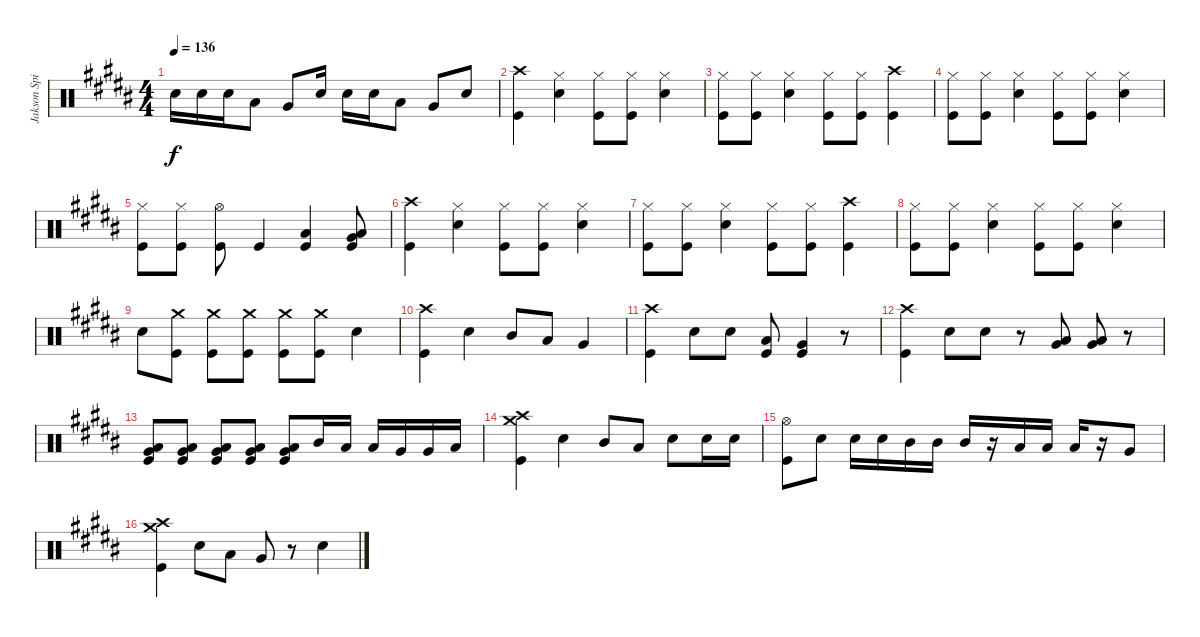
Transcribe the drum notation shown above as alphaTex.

\track ("Jakson Spires Drums" "Jakson Spi") {instrument percussion}
\staff {score}
\articulation defaults
\ts (4 4)
\tempo 136
\clef neutral
\ks b "Snare (hit) 2".16{dy f} "Snare (hit) 2".16 "Snare (hit) 2".16 "Low Tom (hit)".8 "Very Low Tom (hit)".8 "Snare (hit) 2".16 "Snare (hit) 2".16 "Snare (hit) 2".16 "Low Tom (hit)".8 "Very Low Tom (hit)".8 "Snare (hit) 2".8
|
("Crash high (hit)" "Kick (hit)").4 ("Hi-Hat (closed)" "Snare (hit) 2").4 ("Hi-Hat (closed)" "Kick (hit)").8 ("Hi-Hat (closed)" "Kick (hit)").8 ("Hi-Hat (closed)" "Snare (hit) 2").4 |
("Hi-Hat (closed)" "Kick (hit)").8 ("Hi-Hat (closed)" "Kick (hit)").8 ("Hi-Hat (closed)" "Snare (hit) 2").4 ("Hi-Hat (closed)" "Kick (hit)").8 ("Hi-Hat (closed)" "Kick (hit)").8 ("Crash high (hit)" "Kick (hit)").4 |
("Hi-Hat (closed)" "Kick (hit)").8 ("Hi-Hat (closed)" "Kick (hit)").8 ("Hi-Hat (closed)" "Snare (hit) 2").4 ("Hi-Hat (closed)" "Kick (hit)").8 ("Hi-Hat (closed)" "Kick (hit)").8 ("Hi-Hat (closed)" "Snare (hit) 2").4 |
("Hi-Hat (closed)" "Kick (hit)").8 ("Hi-Hat (closed)" "Kick (hit)").8 ("Hi-Hat (open)" "Kick (hit)").8 "Kick (hit)".4 ("Low Tom (hit)" "Kick (hit)").4 ("Low Tom (hit)" "Very Low Tom (hit)" "Kick (hit)").8 |
("Crash high (hit)" "Kick (hit)").4 ("Hi-Hat (closed)" "Snare (hit) 2").4 ("Hi-Hat (closed)" "Kick (hit)").8 ("Hi-Hat (closed)" "Kick (hit)").8 ("Hi-Hat (closed)" "Snare (hit) 2").4 |
("Hi-Hat (closed)" "Kick (hit)").8 ("Hi-Hat (closed)" "Kick (hit)").8 ("Hi-Hat (closed)" "Snare (hit) 2").4 ("Hi-Hat (closed)" "Kick (hit)").8 ("Hi-Hat (closed)" "Kick (hit)").8 ("Crash high (hit)" "Kick (hit)").4 |
("Hi-Hat (closed)" "Kick (hit)").8 ("Hi-Hat (closed)" "Kick (hit)").8 ("Hi-Hat (closed)" "Snare (hit) 2").4 ("Hi-Hat (closed)" "Kick (hit)").8 ("Hi-Hat (closed)" "Kick (hit)").8 ("Hi-Hat (closed)" "Snare (hit) 2").4 |
"Snare (hit) 2".8 ("Crash medium (hit)" "Kick (hit)").8 ("Crash medium (hit)" "Kick (hit)").8 ("Crash medium (hit)" "Kick (hit)").8 ("Crash medium (hit)" "Kick (hit)").8 ("Crash medium (hit)" "Kick (hit)").8 "Snare (hit) 2".4 |
("Crash high (hit)" "Kick (hit)").4 "Snare (hit) 2".4 "Mid Tom (hit)".8 "Low Tom (hit)".8 "Very Low Tom (hit)".4 |
("Crash high (hit)" "Kick (hit)").4 "Snare (hit) 2".8 "Snare (hit) 2".8 ("Low Tom (hit)" "Kick (hit)").8 ("Very Low Tom (hit)" "Kick (hit)").4 r.8 |
("Crash high (hit)" "Kick (hit)").4 "Snare (hit) 2".8 "Snare (hit) 2".8 r.8 ("Low Tom (hit)" "Very Low Tom (hit)").8 ("Low Tom (hit)" "Very Low Tom (hit)").8 r.8 |
("Very Low Tom (hit)" "Low Floor Tom (hit)" "Kick (hit)").8 ("Very Low Tom (hit)" "Low Floor Tom (hit)" "Kick (hit)").8 ("Very Low Tom (hit)" "Low Floor Tom (hit)" "Kick (hit)").8 ("Very Low Tom (hit)" "Low Floor Tom (hit)" "Kick (hit)").8 ("Very Low Tom (hit)" "Low Floor Tom (hit)" "Kick (hit)").8 "Mid Tom (hit)".16 "Low Tom (hit)".16 "Low Tom (hit)".16 "Very Low Tom (hit)".16 "Very Low Tom (hit)".16 "Low Floor Tom (hit)".16 |
("Crash high (hit)" "Crash medium (hit)" "Kick (hit)").4 "Snare (hit) 2".4 "Mid Tom (hit)".8 "Low Tom (hit)".8 "Snare (hit) 2".8 "Snare (hit) 2".16 "Snare (hit) 2".16 |
("Hi-Hat (open)" "Kick (hit)").8 "Snare (hit) 2".8 "Snare (hit) 2".16 "Snare (hit) 2".16 "Mid Tom (hit)".16 "Mid Tom (hit)".16 "Mid Tom (hit)".16 r.16 "Low Tom (hit)".16 "Low Tom (hit)".16 "Low Tom (hit)".16 r.16 "Very Low Tom (hit)".8 |
("Crash high (hit)" "Crash medium (hit)" "Kick (hit)").4 "Snare (hit) 2".8 "Low Tom (hit)".8 "Very Low Tom (hit)".8 r.8 "Snare (hit) 2".4
